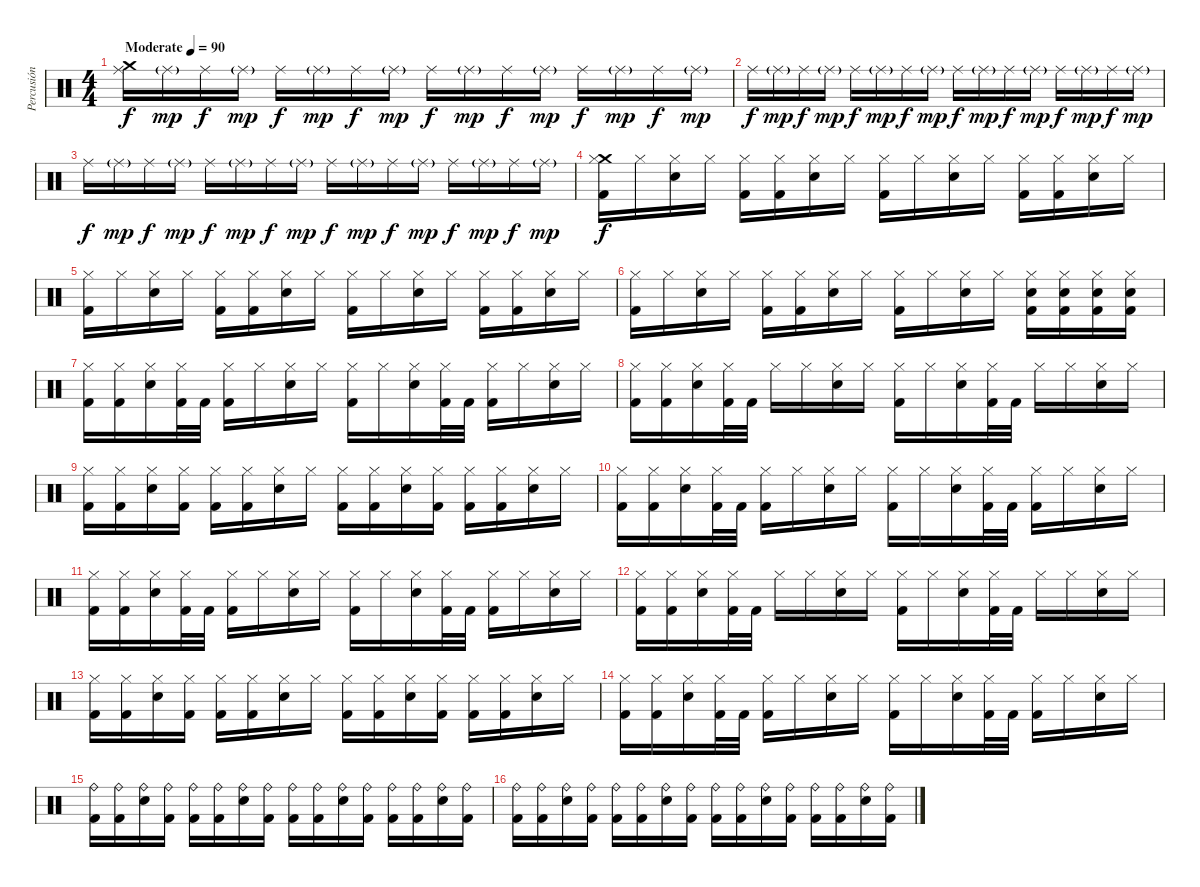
\track ("Percusión" "Percusión") {instrument percussion}
\staff {score}
\articulation defaults
\ts (4 4)
\tempo (90 "Moderate")
\clef neutral
\ks c
("Crash medium (hit)" "Ride (middle)").16{dy f} "Ride (middle)"{g}.16{dy mp} "Ride (middle)".16{dy f} "Ride (middle)"{g}.16{dy mp} "Ride (middle)".16{dy f} "Ride (middle)"{g}.16{dy mp} "Ride (middle)".16{dy f} "Ride (middle)"{g}.16{dy mp} "Ride (middle)".16{dy f} "Ride (middle)"{g}.16{dy mp} "Ride (middle)".16{dy f} "Ride (middle)"{g}.16{dy mp} "Ride (middle)".16{dy f} "Ride (middle)"{g}.16{dy mp} "Ride (middle)".16{dy f} "Ride (middle)"{g}.16{dy mp} |
"Ride (middle)".16{dy f} "Ride (middle)"{g}.16{dy mp} "Ride (middle)".16{dy f} "Ride (middle)"{g}.16{dy mp} "Ride (middle)".16{dy f} "Ride (middle)"{g}.16{dy mp} "Ride (middle)".16{dy f} "Ride (middle)"{g}.16{dy mp} "Ride (middle)".16{dy f} "Ride (middle)"{g}.16{dy mp} "Ride (middle)".16{dy f} "Ride (middle)"{g}.16{dy mp} "Ride (middle)".16{dy f} "Ride (middle)"{g}.16{dy mp} "Ride (middle)".16{dy f} "Ride (middle)"{g}.16{dy mp} |
"Ride (middle)".16{dy f} "Ride (middle)"{g}.16{dy mp} "Ride (middle)".16{dy f} "Ride (middle)"{g}.16{dy mp} "Ride (middle)".16{dy f} "Ride (middle)"{g}.16{dy mp} "Ride (middle)".16{dy f} "Ride (middle)"{g}.16{dy mp} "Ride (middle)".16{dy f} "Ride (middle)"{g}.16{dy mp} "Ride (middle)".16{dy f} "Ride (middle)"{g}.16{dy mp} "Ride (middle)".16{dy f} "Ride (middle)"{g}.16{dy mp} "Ride (middle)".16{dy f} "Ride (middle)"{g}.16{dy mp} |
("Crash medium (hit)" "Hi-Hat (closed)" "Kick (hit) 2").16{dy f} "Hi-Hat (closed)".16 ("Hi-Hat (closed)" "Electric Snare (hit)").16 "Hi-Hat (closed)".16 ("Hi-Hat (closed)" "Kick (hit) 2").16 ("Hi-Hat (closed)" "Kick (hit) 2").16 ("Hi-Hat (closed)" "Electric Snare (hit)").16 "Hi-Hat (closed)".16 ("Hi-Hat (closed)" "Kick (hit) 2").16 "Hi-Hat (closed)".16 ("Hi-Hat (closed)" "Electric Snare (hit)").16 "Hi-Hat (closed)".16 ("Hi-Hat (closed)" "Kick (hit) 2").16 ("Hi-Hat (closed)" "Kick (hit) 2").16 ("Hi-Hat (closed)" "Electric Snare (hit)").16 "Hi-Hat (closed)".16 |
("Hi-Hat (closed)" "Kick (hit) 2").16 "Hi-Hat (closed)".16 ("Hi-Hat (closed)" "Electric Snare (hit)").16 "Hi-Hat (closed)".16 ("Hi-Hat (closed)" "Kick (hit) 2").16 ("Hi-Hat (closed)" "Kick (hit) 2").16 ("Hi-Hat (closed)" "Electric Snare (hit)").16 "Hi-Hat (closed)".16 ("Hi-Hat (closed)" "Kick (hit) 2").16 "Hi-Hat (closed)".16 ("Hi-Hat (closed)" "Electric Snare (hit)").16 "Hi-Hat (closed)".16 ("Hi-Hat (closed)" "Kick (hit) 2").16 ("Hi-Hat (closed)" "Kick (hit) 2").16 ("Hi-Hat (closed)" "Electric Snare (hit)").16 "Hi-Hat (closed)".16 |
("Hi-Hat (closed)" "Kick (hit) 2").16 "Hi-Hat (closed)".16 ("Hi-Hat (closed)" "Electric Snare (hit)").16 "Hi-Hat (closed)".16 ("Hi-Hat (closed)" "Kick (hit) 2").16 ("Hi-Hat (closed)" "Kick (hit) 2").16 ("Hi-Hat (closed)" "Electric Snare (hit)").16 "Hi-Hat (closed)".16 ("Hi-Hat (closed)" "Kick (hit) 2").16 "Hi-Hat (closed)".16 ("Hi-Hat (closed)" "Electric Snare (hit)").16 "Hi-Hat (closed)".16 ("Hi-Hat (closed)" "Electric Snare (hit)" "Kick (hit) 2").16 ("Hi-Hat (closed)" "Electric Snare (hit)" "Kick (hit) 2").16 ("Hi-Hat (closed)" "Electric Snare (hit)" "Kick (hit) 2").16 ("Hi-Hat (closed)" "Electric Snare (hit)" "Kick (hit) 2").16 |
("Hi-Hat (closed)" "Kick (hit) 2").16 ("Hi-Hat (closed)" "Kick (hit) 2").16 ("Hi-Hat (closed)" "Electric Snare (hit)").16 ("Hi-Hat (closed)" "Kick (hit) 2").32 "Kick (hit) 2".32 ("Hi-Hat (closed)" "Kick (hit) 2").16 "Hi-Hat (closed)".16 ("Hi-Hat (closed)" "Electric Snare (hit)").16 "Hi-Hat (closed)".16 ("Hi-Hat (closed)" "Kick (hit) 2").16 "Hi-Hat (closed)".16 ("Hi-Hat (closed)" "Electric Snare (hit)").16 ("Hi-Hat (closed)" "Kick (hit) 2").32 "Kick (hit) 2".32 ("Hi-Hat (closed)" "Kick (hit) 2").16 "Hi-Hat (closed)".16 ("Hi-Hat (closed)" "Electric Snare (hit)").16 "Hi-Hat (closed)".16 |
("Hi-Hat (closed)" "Kick (hit) 2").16 ("Hi-Hat (closed)" "Kick (hit) 2").16 ("Hi-Hat (closed)" "Electric Snare (hit)").16 ("Hi-Hat (closed)" "Kick (hit) 2").32 "Kick (hit) 2".32 "Hi-Hat (closed)".16 "Hi-Hat (closed)".16 ("Hi-Hat (closed)" "Electric Snare (hit)").16 "Hi-Hat (closed)".16 ("Hi-Hat (closed)" "Kick (hit) 2").16 "Hi-Hat (closed)".16 ("Hi-Hat (closed)" "Electric Snare (hit)").16 ("Hi-Hat (closed)" "Kick (hit) 2").32 "Kick (hit) 2".32 "Hi-Hat (closed)".16 "Hi-Hat (closed)".16 ("Hi-Hat (closed)" "Electric Snare (hit)").16 "Hi-Hat (closed)".16 |
("Hi-Hat (closed)" "Kick (hit) 2").16 ("Hi-Hat (closed)" "Kick (hit) 2").16 ("Hi-Hat (closed)" "Electric Snare (hit)").16 ("Hi-Hat (closed)" "Kick (hit) 2").16 ("Hi-Hat (closed)" "Kick (hit) 2").16 ("Hi-Hat (closed)" "Kick (hit) 2").16 ("Hi-Hat (closed)" "Electric Snare (hit)").16 "Hi-Hat (closed)".16 ("Hi-Hat (closed)" "Kick (hit) 2").16 ("Hi-Hat (closed)" "Kick (hit) 2").16 ("Hi-Hat (closed)" "Electric Snare (hit)").16 ("Hi-Hat (closed)" "Kick (hit) 2").16 ("Hi-Hat (closed)" "Kick (hit) 2").16 ("Hi-Hat (closed)" "Kick (hit) 2").16 ("Hi-Hat (closed)" "Electric Snare (hit)").16 "Hi-Hat (closed)".16 |
("Hi-Hat (closed)" "Kick (hit) 2").16 ("Hi-Hat (closed)" "Kick (hit) 2").16 ("Hi-Hat (closed)" "Electric Snare (hit)").16 ("Hi-Hat (closed)" "Kick (hit) 2").32 "Kick (hit) 2".32 ("Hi-Hat (closed)" "Kick (hit) 2").16 "Hi-Hat (closed)".16 ("Hi-Hat (closed)" "Electric Snare (hit)").16 "Hi-Hat (closed)".16 ("Hi-Hat (closed)" "Kick (hit) 2").16 "Hi-Hat (closed)".16 ("Hi-Hat (closed)" "Electric Snare (hit)").16 ("Hi-Hat (closed)" "Kick (hit) 2").32 "Kick (hit) 2".32 ("Hi-Hat (closed)" "Kick (hit) 2").16 "Hi-Hat (closed)".16 ("Hi-Hat (closed)" "Electric Snare (hit)").16 "Hi-Hat (closed)".16 |
("Hi-Hat (closed)" "Kick (hit) 2").16 ("Hi-Hat (closed)" "Kick (hit) 2").16 ("Hi-Hat (closed)" "Electric Snare (hit)").16 ("Hi-Hat (closed)" "Kick (hit) 2").32 "Kick (hit) 2".32 ("Hi-Hat (closed)" "Kick (hit) 2").16 "Hi-Hat (closed)".16 ("Hi-Hat (closed)" "Electric Snare (hit)").16 "Hi-Hat (closed)".16 ("Hi-Hat (closed)" "Kick (hit) 2").16 "Hi-Hat (closed)".16 ("Hi-Hat (closed)" "Electric Snare (hit)").16 ("Hi-Hat (closed)" "Kick (hit) 2").32 "Kick (hit) 2".32 ("Hi-Hat (closed)" "Kick (hit) 2").16 "Hi-Hat (closed)".16 ("Hi-Hat (closed)" "Electric Snare (hit)").16 "Hi-Hat (closed)".16 |
("Hi-Hat (closed)" "Kick (hit) 2").16 ("Hi-Hat (closed)" "Kick (hit) 2").16 ("Hi-Hat (closed)" "Electric Snare (hit)").16 ("Hi-Hat (closed)" "Kick (hit) 2").32 "Kick (hit) 2".32 "Hi-Hat (closed)".16 "Hi-Hat (closed)".16 ("Hi-Hat (closed)" "Electric Snare (hit)").16 "Hi-Hat (closed)".16 ("Hi-Hat (closed)" "Kick (hit) 2").16 "Hi-Hat (closed)".16 ("Hi-Hat (closed)" "Electric Snare (hit)").16 ("Hi-Hat (closed)" "Kick (hit) 2").32 "Kick (hit) 2".32 "Hi-Hat (closed)".16 "Hi-Hat (closed)".16 ("Hi-Hat (closed)" "Electric Snare (hit)").16 "Hi-Hat (closed)".16 |
("Hi-Hat (closed)" "Kick (hit) 2").16 ("Hi-Hat (closed)" "Kick (hit) 2").16 ("Hi-Hat (closed)" "Electric Snare (hit)").16 ("Hi-Hat (closed)" "Kick (hit) 2").16 ("Hi-Hat (closed)" "Kick (hit) 2").16 ("Hi-Hat (closed)" "Kick (hit) 2").16 ("Hi-Hat (closed)" "Electric Snare (hit)").16 "Hi-Hat (closed)".16 ("Hi-Hat (closed)" "Kick (hit) 2").16 ("Hi-Hat (closed)" "Kick (hit) 2").16 ("Hi-Hat (closed)" "Electric Snare (hit)").16 ("Hi-Hat (closed)" "Kick (hit) 2").16 ("Hi-Hat (closed)" "Kick (hit) 2").16 ("Hi-Hat (closed)" "Kick (hit) 2").16 ("Hi-Hat (closed)" "Electric Snare (hit)").16 "Hi-Hat (closed)".16 |
("Hi-Hat (closed)" "Kick (hit) 2").16 ("Hi-Hat (closed)" "Kick (hit) 2").16 ("Hi-Hat (closed)" "Electric Snare (hit)").16 ("Hi-Hat (closed)" "Kick (hit) 2").32 "Kick (hit) 2".32 ("Hi-Hat (closed)" "Kick (hit) 2").16 "Hi-Hat (closed)".16 ("Hi-Hat (closed)" "Electric Snare (hit)").16 "Hi-Hat (closed)".16 ("Hi-Hat (closed)" "Kick (hit) 2").16 "Hi-Hat (closed)".16 ("Hi-Hat (closed)" "Electric Snare (hit)").16 ("Hi-Hat (closed)" "Kick (hit) 2").32 "Kick (hit) 2".32 ("Hi-Hat (closed)" "Kick (hit) 2").16 "Hi-Hat (closed)".16 ("Hi-Hat (closed)" "Electric Snare (hit)").16 "Hi-Hat (closed)".16 |
("Ride (bell)" "Kick (hit) 2").16 ("Ride (bell)" "Kick (hit) 2").16 ("Ride (bell)" "Electric Snare (hit)").16 ("Ride (bell)" "Kick (hit) 2").16 ("Ride (bell)" "Kick (hit) 2").16 ("Ride (bell)" "Kick (hit) 2").16 ("Ride (bell)" "Electric Snare (hit)").16 ("Ride (bell)" "Kick (hit) 2").16 ("Ride (bell)" "Kick (hit) 2").16 ("Ride (bell)" "Kick (hit) 2").16 ("Ride (bell)" "Electric Snare (hit)").16 ("Ride (bell)" "Kick (hit) 2").16 ("Ride (bell)" "Kick (hit) 2").16 ("Ride (bell)" "Kick (hit) 2").16 ("Ride (bell)" "Electric Snare (hit)").16 ("Ride (bell)" "Kick (hit) 2").16 |
("Ride (bell)" "Kick (hit) 2").16 ("Ride (bell)" "Kick (hit) 2").16 ("Ride (bell)" "Electric Snare (hit)").16 ("Ride (bell)" "Kick (hit) 2").16 ("Ride (bell)" "Kick (hit) 2").16 ("Ride (bell)" "Kick (hit) 2").16 ("Ride (bell)" "Electric Snare (hit)").16 ("Ride (bell)" "Kick (hit) 2").16 ("Ride (bell)" "Kick (hit) 2").16 ("Ride (bell)" "Kick (hit) 2").16 ("Ride (bell)" "Electric Snare (hit)").16 ("Ride (bell)" "Kick (hit) 2").16 ("Ride (bell)" "Kick (hit) 2").16 ("Ride (bell)" "Kick (hit) 2").16 ("Ride (bell)" "Electric Snare (hit)").16 ("Ride (bell)" "Kick (hit) 2").16
